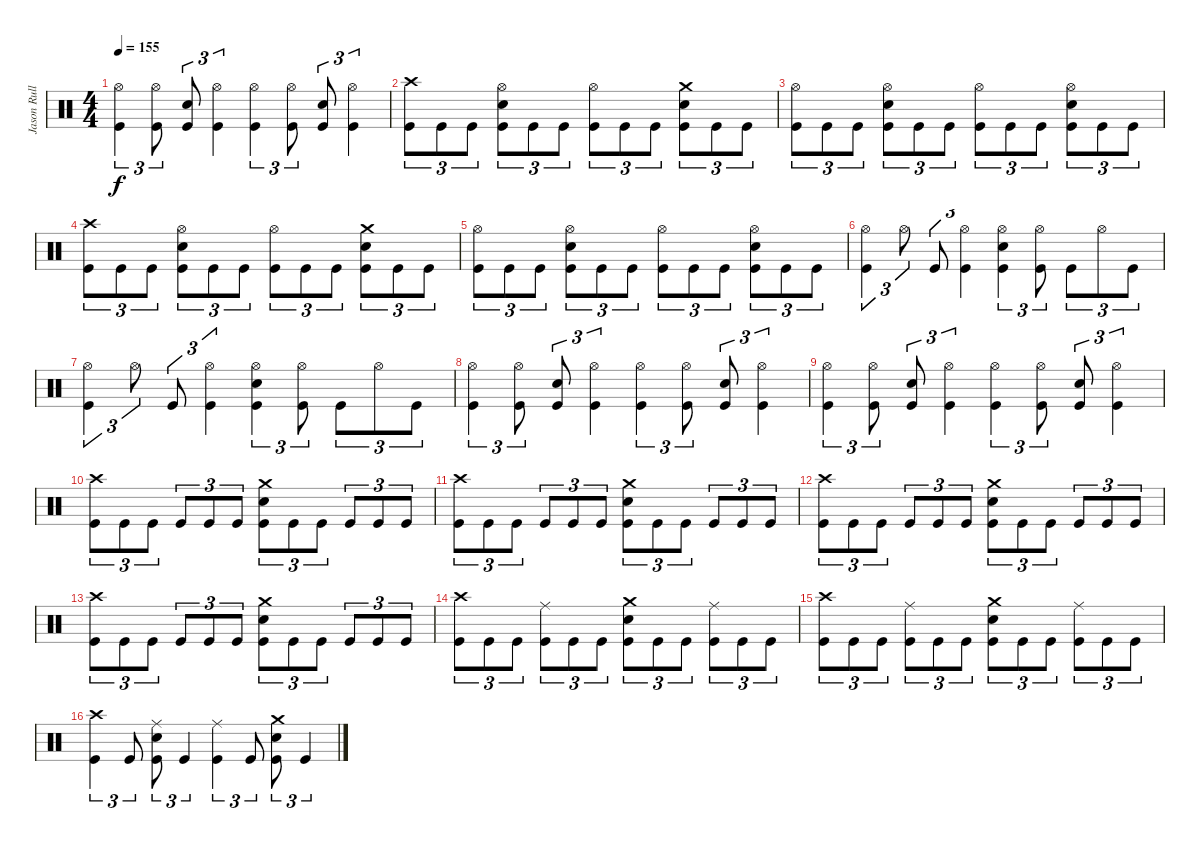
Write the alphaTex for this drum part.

\track ("Jason Rullo - BATTERIE" "Jason Rull") {instrument percussion}
\staff {score}
\articulation defaults
\ts (4 4)
\tempo 155
\clef neutral
\ks c
("Hi-Hat (open)" "Kick (hit)").4{tu (3 2) dy f} ("Hi-Hat (open)" "Kick (hit)").8{tu (3 2)} ("Snare (hit) 2" "Kick (hit)").8{tu (3 2)} ("Hi-Hat (open)" "Kick (hit)").4{tu (3 2)} ("Hi-Hat (open)" "Kick (hit)").4{tu (3 2)} ("Hi-Hat (open)" "Kick (hit)").8{tu (3 2)} ("Snare (hit) 2" "Kick (hit)").8{tu (3 2)} ("Hi-Hat (open)" "Kick (hit)").4{tu (3 2)} |
("Crash high (hit)" "Kick (hit)").8{tu (3 2)} "Kick (hit)".8{tu (3 2)} "Kick (hit)".8{tu (3 2)} ("Hi-Hat (open)" "Snare (hit) 2" "Kick (hit)").8{tu (3 2)} "Kick (hit)".8{tu (3 2)} "Kick (hit)".8{tu (3 2)} ("Hi-Hat (open)" "Kick (hit)").8{tu (3 2)} "Kick (hit)".8{tu (3 2)} "Kick (hit)".8{tu (3 2)} ("Crash medium (hit)" "Snare (hit) 2" "Kick (hit)").8{tu (3 2)} "Kick (hit)".8{tu (3 2)} "Kick (hit)".8{tu (3 2)} |
("Hi-Hat (open)" "Kick (hit)").8{tu (3 2)} "Kick (hit)".8{tu (3 2)} "Kick (hit)".8{tu (3 2)} ("Hi-Hat (open)" "Snare (hit) 2" "Kick (hit)").8{tu (3 2)} "Kick (hit)".8{tu (3 2)} "Kick (hit)".8{tu (3 2)} ("Hi-Hat (open)" "Kick (hit)").8{tu (3 2)} "Kick (hit)".8{tu (3 2)} "Kick (hit)".8{tu (3 2)} ("Hi-Hat (open)" "Snare (hit) 2" "Kick (hit)").8{tu (3 2)} "Kick (hit)".8{tu (3 2)} "Kick (hit)".8{tu (3 2)} |
("Crash high (hit)" "Kick (hit)").8{tu (3 2)} "Kick (hit)".8{tu (3 2)} "Kick (hit)".8{tu (3 2)} ("Hi-Hat (open)" "Snare (hit) 2" "Kick (hit)").8{tu (3 2)} "Kick (hit)".8{tu (3 2)} "Kick (hit)".8{tu (3 2)} ("Hi-Hat (open)" "Kick (hit)").8{tu (3 2)} "Kick (hit)".8{tu (3 2)} "Kick (hit)".8{tu (3 2)} ("Crash medium (hit)" "Snare (hit) 2" "Kick (hit)").8{tu (3 2)} "Kick (hit)".8{tu (3 2)} "Kick (hit)".8{tu (3 2)} |
("Hi-Hat (open)" "Kick (hit)").8{tu (3 2)} "Kick (hit)".8{tu (3 2)} "Kick (hit)".8{tu (3 2)} ("Hi-Hat (open)" "Snare (hit) 2" "Kick (hit)").8{tu (3 2)} "Kick (hit)".8{tu (3 2)} "Kick (hit)".8{tu (3 2)} ("Hi-Hat (open)" "Kick (hit)").8{tu (3 2)} "Kick (hit)".8{tu (3 2)} "Kick (hit)".8{tu (3 2)} ("Hi-Hat (open)" "Snare (hit) 2" "Kick (hit)").8{tu (3 2)} "Kick (hit)".8{tu (3 2)} "Kick (hit)".8{tu (3 2)} |
("Hi-Hat (open)" "Kick (hit)").4{tu (3 2)} "Hi-Hat (open)".8{tu (3 2)} "Kick (hit)".8{tu (3 2)} ("Hi-Hat (open)" "Kick (hit)").4{tu (3 2)} ("Hi-Hat (open)" "Snare (hit) 2" "Kick (hit)").4{tu (3 2)} ("Hi-Hat (open)" "Kick (hit)").8{tu (3 2)} "Kick (hit)".8{tu (3 2)} "Hi-Hat (open)".8{tu (3 2)} "Kick (hit)".8{tu (3 2)} |
("Hi-Hat (open)" "Kick (hit)").4{tu (3 2)} "Hi-Hat (open)".8{tu (3 2)} "Kick (hit)".8{tu (3 2)} ("Hi-Hat (open)" "Kick (hit)").4{tu (3 2)} ("Hi-Hat (open)" "Snare (hit) 2" "Kick (hit)").4{tu (3 2)} ("Hi-Hat (open)" "Kick (hit)").8{tu (3 2)} "Kick (hit)".8{tu (3 2)} "Hi-Hat (open)".8{tu (3 2)} "Kick (hit)".8{tu (3 2)} |
("Hi-Hat (open)" "Kick (hit)").4{tu (3 2)} ("Hi-Hat (open)" "Kick (hit)").8{tu (3 2)} ("Snare (hit) 2" "Kick (hit)").8{tu (3 2)} ("Hi-Hat (open)" "Kick (hit)").4{tu (3 2)} ("Hi-Hat (open)" "Kick (hit)").4{tu (3 2)} ("Hi-Hat (open)" "Kick (hit)").8{tu (3 2)} ("Snare (hit) 2" "Kick (hit)").8{tu (3 2)} ("Hi-Hat (open)" "Kick (hit)").4{tu (3 2)} |
("Hi-Hat (open)" "Kick (hit)").4{tu (3 2)} ("Hi-Hat (open)" "Kick (hit)").8{tu (3 2)} ("Snare (hit) 2" "Kick (hit)").8{tu (3 2)} ("Hi-Hat (open)" "Kick (hit)").4{tu (3 2)} ("Hi-Hat (open)" "Kick (hit)").4{tu (3 2)} ("Hi-Hat (open)" "Kick (hit)").8{tu (3 2)} ("Snare (hit) 2" "Kick (hit)").8{tu (3 2)} ("Hi-Hat (open)" "Kick (hit)").4{tu (3 2)} |
("Crash high (hit)" "Kick (hit)").8{tu (3 2)} "Kick (hit)".8{tu (3 2)} "Kick (hit)".8{tu (3 2)} "Kick (hit)".8{tu (3 2)} "Kick (hit)".8{tu (3 2)} "Kick (hit)".8{tu (3 2)} ("Crash medium (hit)" "Snare (hit) 2" "Kick (hit)").8{tu (3 2)} "Kick (hit)".8{tu (3 2)} "Kick (hit)".8{tu (3 2)} "Kick (hit)".8{tu (3 2)} "Kick (hit)".8{tu (3 2)} "Kick (hit)".8{tu (3 2)} |
("Crash high (hit)" "Kick (hit)").8{tu (3 2)} "Kick (hit)".8{tu (3 2)} "Kick (hit)".8{tu (3 2)} "Kick (hit)".8{tu (3 2)} "Kick (hit)".8{tu (3 2)} "Kick (hit)".8{tu (3 2)} ("Crash medium (hit)" "Snare (hit) 2" "Kick (hit)").8{tu (3 2)} "Kick (hit)".8{tu (3 2)} "Kick (hit)".8{tu (3 2)} "Kick (hit)".8{tu (3 2)} "Kick (hit)".8{tu (3 2)} "Kick (hit)".8{tu (3 2)} |
("Crash high (hit)" "Kick (hit)").8{tu (3 2)} "Kick (hit)".8{tu (3 2)} "Kick (hit)".8{tu (3 2)} "Kick (hit)".8{tu (3 2)} "Kick (hit)".8{tu (3 2)} "Kick (hit)".8{tu (3 2)} ("Crash medium (hit)" "Snare (hit) 2" "Kick (hit)").8{tu (3 2)} "Kick (hit)".8{tu (3 2)} "Kick (hit)".8{tu (3 2)} "Kick (hit)".8{tu (3 2)} "Kick (hit)".8{tu (3 2)} "Kick (hit)".8{tu (3 2)} |
("Crash high (hit)" "Kick (hit)").8{tu (3 2)} "Kick (hit)".8{tu (3 2)} "Kick (hit)".8{tu (3 2)} "Kick (hit)".8{tu (3 2)} "Kick (hit)".8{tu (3 2)} "Kick (hit)".8{tu (3 2)} ("Crash medium (hit)" "Snare (hit) 2" "Kick (hit)").8{tu (3 2)} "Kick (hit)".8{tu (3 2)} "Kick (hit)".8{tu (3 2)} "Kick (hit)".8{tu (3 2)} "Kick (hit)".8{tu (3 2)} "Kick (hit)".8{tu (3 2)} |
("Crash high (hit)" "Kick (hit)").8{tu (3 2)} "Kick (hit)".8{tu (3 2)} "Kick (hit)".8{tu (3 2)} ("Ride (middle)" "Kick (hit)").8{tu (3 2)} "Kick (hit)".8{tu (3 2)} "Kick (hit)".8{tu (3 2)} ("Crash medium (hit)" "Snare (hit) 2" "Kick (hit)").8{tu (3 2)} "Kick (hit)".8{tu (3 2)} "Kick (hit)".8{tu (3 2)} ("Ride (middle)" "Kick (hit)").8{tu (3 2)} "Kick (hit)".8{tu (3 2)} "Kick (hit)".8{tu (3 2)} |
("Crash high (hit)" "Kick (hit)").8{tu (3 2)} "Kick (hit)".8{tu (3 2)} "Kick (hit)".8{tu (3 2)} ("Ride (middle)" "Kick (hit)").8{tu (3 2)} "Kick (hit)".8{tu (3 2)} "Kick (hit)".8{tu (3 2)} ("Crash medium (hit)" "Snare (hit) 2" "Kick (hit)").8{tu (3 2)} "Kick (hit)".8{tu (3 2)} "Kick (hit)".8{tu (3 2)} ("Ride (middle)" "Kick (hit)").8{tu (3 2)} "Kick (hit)".8{tu (3 2)} "Kick (hit)".8{tu (3 2)} |
("Crash high (hit)" "Kick (hit)").4{tu (3 2)} "Kick (hit)".8{tu (3 2)} ("Ride (middle)" "Snare (hit) 2" "Kick (hit)").8{tu (3 2)} "Kick (hit)".4{tu (3 2)} ("Ride (middle)" "Kick (hit)").4{tu (3 2)} "Kick (hit)".8{tu (3 2)} ("Crash medium (hit)" "Snare (hit) 2" "Kick (hit)").8{tu (3 2)} "Kick (hit)".4{tu (3 2)}
